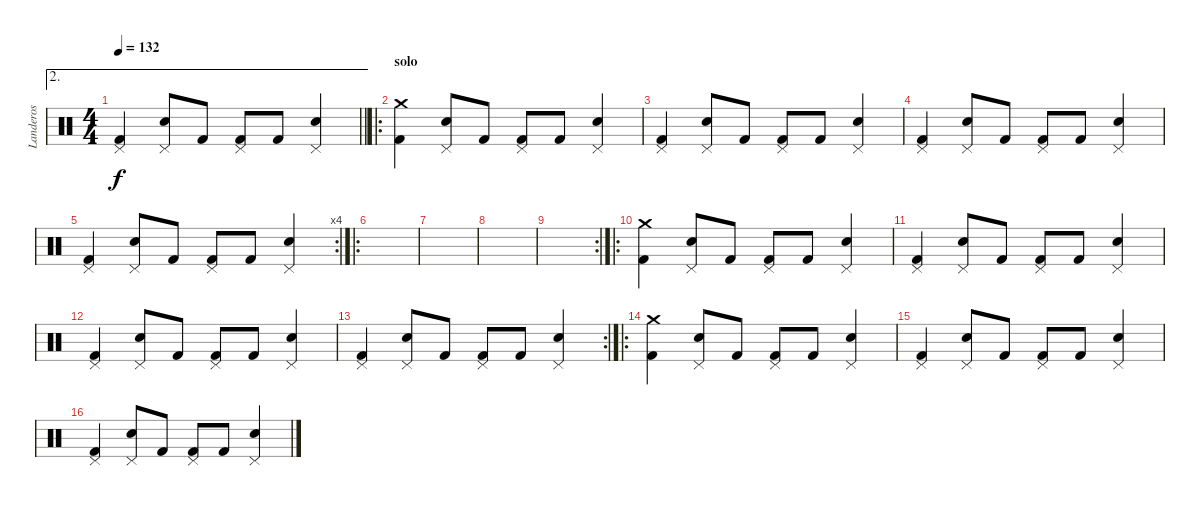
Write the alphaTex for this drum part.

\track ("Landeros" "Landeros") {instrument percussion}
\staff {score}
\articulation defaults
\ae 2
\ts (4 4)
\tempo 132
\clef neutral
\barLineRight lightlight
\ks c
("Kick (hit) 2" "Pedal Hi-Hat (hit)").4{dy f} ("Electric Snare (hit)" "Pedal Hi-Hat (hit)").8 "Kick (hit) 2".8 ("Kick (hit) 2" "Pedal Hi-Hat (hit)").8 "Kick (hit) 2".8 ("Electric Snare (hit)" "Pedal Hi-Hat (hit)").4 |
\ro
\section ("" "solo")
("Kick (hit) 2" "Crash medium (hit)").4 ("Electric Snare (hit)" "Pedal Hi-Hat (hit)").8 "Kick (hit) 2".8 ("Kick (hit) 2" "Pedal Hi-Hat (hit)").8 "Kick (hit) 2".8 ("Electric Snare (hit)" "Pedal Hi-Hat (hit)").4 |
("Kick (hit) 2" "Pedal Hi-Hat (hit)").4 ("Electric Snare (hit)" "Pedal Hi-Hat (hit)").8 "Kick (hit) 2".8 ("Kick (hit) 2" "Pedal Hi-Hat (hit)").8 "Kick (hit) 2".8 ("Electric Snare (hit)" "Pedal Hi-Hat (hit)").4 |
("Kick (hit) 2" "Pedal Hi-Hat (hit)").4 ("Electric Snare (hit)" "Pedal Hi-Hat (hit)").8 "Kick (hit) 2".8 ("Kick (hit) 2" "Pedal Hi-Hat (hit)").8 "Kick (hit) 2".8 ("Electric Snare (hit)" "Pedal Hi-Hat (hit)").4 |
\rc 4
("Kick (hit) 2" "Pedal Hi-Hat (hit)").4 ("Electric Snare (hit)" "Pedal Hi-Hat (hit)").8 "Kick (hit) 2".8 ("Kick (hit) 2" "Pedal Hi-Hat (hit)").8 "Kick (hit) 2".8 ("Electric Snare (hit)" "Pedal Hi-Hat (hit)").4 |
\ro
|
|
|
\rc 2
|
\ro
("Kick (hit) 2" "Crash medium (hit)").4 ("Electric Snare (hit)" "Pedal Hi-Hat (hit)").8 "Kick (hit) 2".8 ("Kick (hit) 2" "Pedal Hi-Hat (hit)").8 "Kick (hit) 2".8 ("Electric Snare (hit)" "Pedal Hi-Hat (hit)").4 |
("Kick (hit) 2" "Pedal Hi-Hat (hit)").4 ("Electric Snare (hit)" "Pedal Hi-Hat (hit)").8 "Kick (hit) 2".8 ("Kick (hit) 2" "Pedal Hi-Hat (hit)").8 "Kick (hit) 2".8 ("Electric Snare (hit)" "Pedal Hi-Hat (hit)").4 |
("Kick (hit) 2" "Pedal Hi-Hat (hit)").4 ("Electric Snare (hit)" "Pedal Hi-Hat (hit)").8 "Kick (hit) 2".8 ("Kick (hit) 2" "Pedal Hi-Hat (hit)").8 "Kick (hit) 2".8 ("Electric Snare (hit)" "Pedal Hi-Hat (hit)").4 |
\rc 2
("Kick (hit) 2" "Pedal Hi-Hat (hit)").4 ("Electric Snare (hit)" "Pedal Hi-Hat (hit)").8 "Kick (hit) 2".8 ("Kick (hit) 2" "Pedal Hi-Hat (hit)").8 "Kick (hit) 2".8 ("Electric Snare (hit)" "Pedal Hi-Hat (hit)").4 |
\ro
("Kick (hit) 2" "Crash medium (hit)").4 ("Electric Snare (hit)" "Pedal Hi-Hat (hit)").8 "Kick (hit) 2".8 ("Kick (hit) 2" "Pedal Hi-Hat (hit)").8 "Kick (hit) 2".8 ("Electric Snare (hit)" "Pedal Hi-Hat (hit)").4 |
("Kick (hit) 2" "Pedal Hi-Hat (hit)").4 ("Electric Snare (hit)" "Pedal Hi-Hat (hit)").8 "Kick (hit) 2".8 ("Kick (hit) 2" "Pedal Hi-Hat (hit)").8 "Kick (hit) 2".8 ("Electric Snare (hit)" "Pedal Hi-Hat (hit)").4 |
("Kick (hit) 2" "Pedal Hi-Hat (hit)").4 ("Electric Snare (hit)" "Pedal Hi-Hat (hit)").8 "Kick (hit) 2".8 ("Kick (hit) 2" "Pedal Hi-Hat (hit)").8 "Kick (hit) 2".8 ("Electric Snare (hit)" "Pedal Hi-Hat (hit)").4
